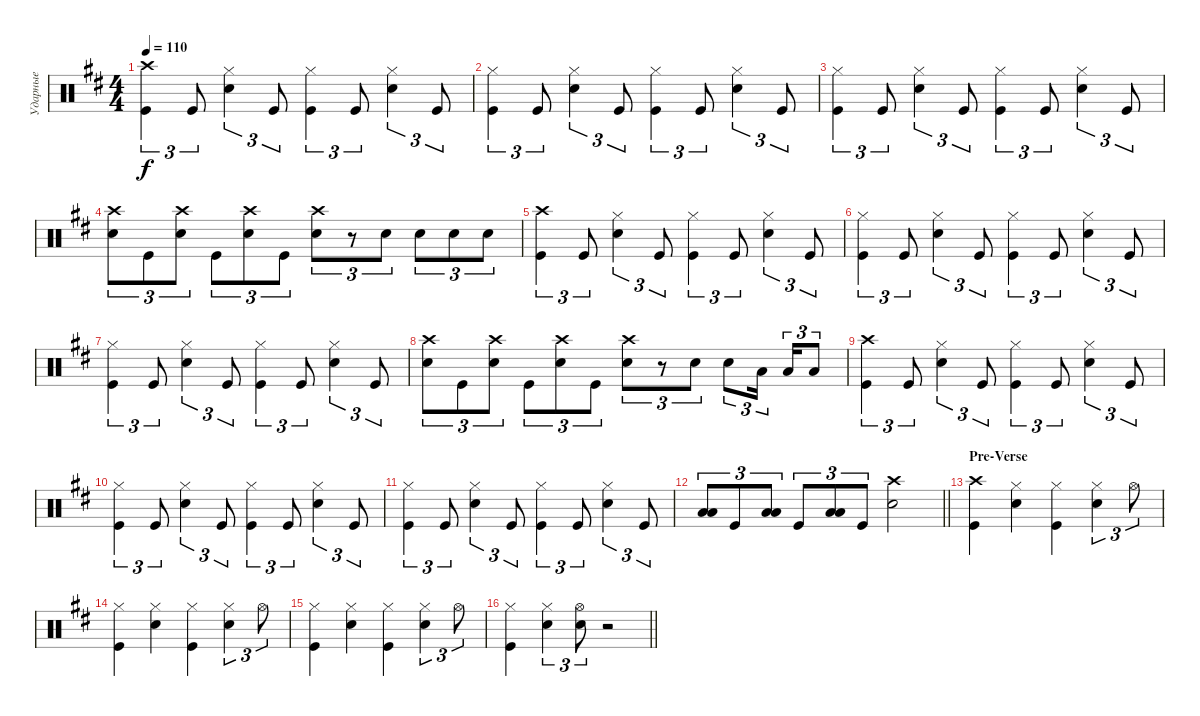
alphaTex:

\track ("Ударные" "Ударные") {instrument percussion}
\staff {score}
\articulation defaults
\ts (4 4)
\tempo 110
\clef neutral
\ks bminor
("Kick (hit)" "Crash high (hit)").4{tu (3 2) dy f} "Kick (hit)".8{tu (3 2)} ("Snare (hit) 2" "Hi-Hat (closed)").4{tu (3 2)} "Kick (hit)".8{tu (3 2)} ("Kick (hit)" "Hi-Hat (closed)").4{tu (3 2)} "Kick (hit)".8{tu (3 2)} ("Snare (hit) 2" "Hi-Hat (closed)").4{tu (3 2)} "Kick (hit)".8{tu (3 2)} |
("Kick (hit)" "Hi-Hat (closed)").4{tu (3 2)} "Kick (hit)".8{tu (3 2)} ("Snare (hit) 2" "Hi-Hat (closed)").4{tu (3 2)} "Kick (hit)".8{tu (3 2)} ("Kick (hit)" "Hi-Hat (closed)").4{tu (3 2)} "Kick (hit)".8{tu (3 2)} ("Snare (hit) 2" "Hi-Hat (closed)").4{tu (3 2)} "Kick (hit)".8{tu (3 2)} |
("Kick (hit)" "Hi-Hat (closed)").4{tu (3 2)} "Kick (hit)".8{tu (3 2)} ("Snare (hit) 2" "Hi-Hat (closed)").4{tu (3 2)} "Kick (hit)".8{tu (3 2)} ("Kick (hit)" "Hi-Hat (closed)").4{tu (3 2)} "Kick (hit)".8{tu (3 2)} ("Snare (hit) 2" "Hi-Hat (closed)").4{tu (3 2)} "Kick (hit)".8{tu (3 2)} |
("Snare (hit) 2" "Crash high (hit)").8{tu (3 2)} "Kick (hit)".8{tu (3 2)} ("Snare (hit) 2" "Crash high (hit)").8{tu (3 2)} "Kick (hit)".8{tu (3 2)} ("Snare (hit) 2" "Crash high (hit)").8{tu (3 2)} "Kick (hit)".8{tu (3 2)} ("Snare (hit) 2" "Crash high (hit)").8{tu (3 2)} r.8{tu (3 2)} "Snare (hit) 2".8{tu (3 2)} "Snare (hit) 2".8{tu (3 2)} "Snare (hit) 2".8{tu (3 2)} "Snare (hit) 2".8{tu (3 2)} |
("Kick (hit)" "Crash high (hit)").4{tu (3 2)} "Kick (hit)".8{tu (3 2)} ("Snare (hit) 2" "Hi-Hat (closed)").4{tu (3 2)} "Kick (hit)".8{tu (3 2)} ("Kick (hit)" "Hi-Hat (closed)").4{tu (3 2)} "Kick (hit)".8{tu (3 2)} ("Snare (hit) 2" "Hi-Hat (closed)").4{tu (3 2)} "Kick (hit)".8{tu (3 2)} |
("Kick (hit)" "Hi-Hat (closed)").4{tu (3 2)} "Kick (hit)".8{tu (3 2)} ("Snare (hit) 2" "Hi-Hat (closed)").4{tu (3 2)} "Kick (hit)".8{tu (3 2)} ("Kick (hit)" "Hi-Hat (closed)").4{tu (3 2)} "Kick (hit)".8{tu (3 2)} ("Snare (hit) 2" "Hi-Hat (closed)").4{tu (3 2)} "Kick (hit)".8{tu (3 2)} |
("Kick (hit)" "Hi-Hat (closed)").4{tu (3 2)} "Kick (hit)".8{tu (3 2)} ("Snare (hit) 2" "Hi-Hat (closed)").4{tu (3 2)} "Kick (hit)".8{tu (3 2)} ("Kick (hit)" "Hi-Hat (closed)").4{tu (3 2)} "Kick (hit)".8{tu (3 2)} ("Snare (hit) 2" "Hi-Hat (closed)").4{tu (3 2)} "Kick (hit)".8{tu (3 2)} |
("Snare (hit) 2" "Crash high (hit)").8{tu (3 2)} "Kick (hit)".8{tu (3 2)} ("Snare (hit) 2" "Crash high (hit)").8{tu (3 2)} "Kick (hit)".8{tu (3 2)} ("Snare (hit) 2" "Crash high (hit)").8{tu (3 2)} "Kick (hit)".8{tu (3 2)} ("Snare (hit) 2" "Crash high (hit)").8{tu (3 2)} r.8{tu (3 2)} "Snare (hit) 2".8{tu (3 2)} "Snare (hit) 2".8{tu (3 2)} "Low Tom (hit)".16{tu (3 2) beam splitsecondary} "Low Tom (hit)".16{tu (3 2)} "Low Tom (hit)".8{tu (3 2)} |
("Kick (hit)" "Crash high (hit)").4{tu (3 2)} "Kick (hit)".8{tu (3 2)} ("Snare (hit) 2" "Hi-Hat (closed)").4{tu (3 2)} "Kick (hit)".8{tu (3 2)} ("Kick (hit)" "Hi-Hat (closed)").4{tu (3 2)} "Kick (hit)".8{tu (3 2)} ("Snare (hit) 2" "Hi-Hat (closed)").4{tu (3 2)} "Kick (hit)".8{tu (3 2)} |
("Kick (hit)" "Hi-Hat (closed)").4{tu (3 2)} "Kick (hit)".8{tu (3 2)} ("Snare (hit) 2" "Hi-Hat (closed)").4{tu (3 2)} "Kick (hit)".8{tu (3 2)} ("Kick (hit)" "Hi-Hat (closed)").4{tu (3 2)} "Kick (hit)".8{tu (3 2)} ("Snare (hit) 2" "Hi-Hat (closed)").4{tu (3 2)} "Kick (hit)".8{tu (3 2)} |
("Kick (hit)" "Hi-Hat (closed)").4{tu (3 2)} "Kick (hit)".8{tu (3 2)} ("Snare (hit) 2" "Hi-Hat (closed)").4{tu (3 2)} "Kick (hit)".8{tu (3 2)} ("Kick (hit)" "Hi-Hat (closed)").4{tu (3 2)} "Kick (hit)".8{tu (3 2)} ("Snare (hit) 2" "Hi-Hat (closed)").4{tu (3 2)} "Kick (hit)".8{tu (3 2)} |
\barLineRight lightlight
("Low Tom (hit)" "Low Tom (hit)").8{tu (3 2) bd 120} "Kick (hit)".8{tu (3 2)} ("Low Tom (hit)" "Low Tom (hit)").8{tu (3 2) bd 120} "Kick (hit)".8{tu (3 2)} ("Low Tom (hit)" "Low Tom (hit)").8{tu (3 2) bd 120} "Kick (hit)".8{tu (3 2)} ("Snare (hit) 2" "Crash high (hit)").2 |
\section ("" "Pre-Verse")
("Kick (hit)" "Crash high (hit)").4 ("Hi-Hat (closed)" "Snare (hit) 2").4 ("Hi-Hat (closed)" "Kick (hit)").4 ("Snare (hit) 2" "Hi-Hat (closed)").4{tu (3 2)} "Hi-Hat (open)".8{tu (3 2)} |
("Kick (hit)" "Hi-Hat (closed)").4 ("Hi-Hat (closed)" "Snare (hit) 2").4 ("Hi-Hat (closed)" "Kick (hit)").4 ("Snare (hit) 2" "Hi-Hat (closed)").4{tu (3 2)} "Hi-Hat (open)".8{tu (3 2)} |
("Kick (hit)" "Hi-Hat (closed)").4 ("Hi-Hat (closed)" "Snare (hit) 2").4 ("Hi-Hat (closed)" "Kick (hit)").4 ("Snare (hit) 2" "Hi-Hat (closed)").4{tu (3 2)} "Hi-Hat (open)".8{tu (3 2)} |
\barLineRight lightlight
("Kick (hit)" "Hi-Hat (closed)").4 ("Hi-Hat (closed)" "Snare (hit) 2").4{tu (3 2)} ("Snare (hit) 2" "Hi-Hat (open)").8{tu (3 2)} r.2
